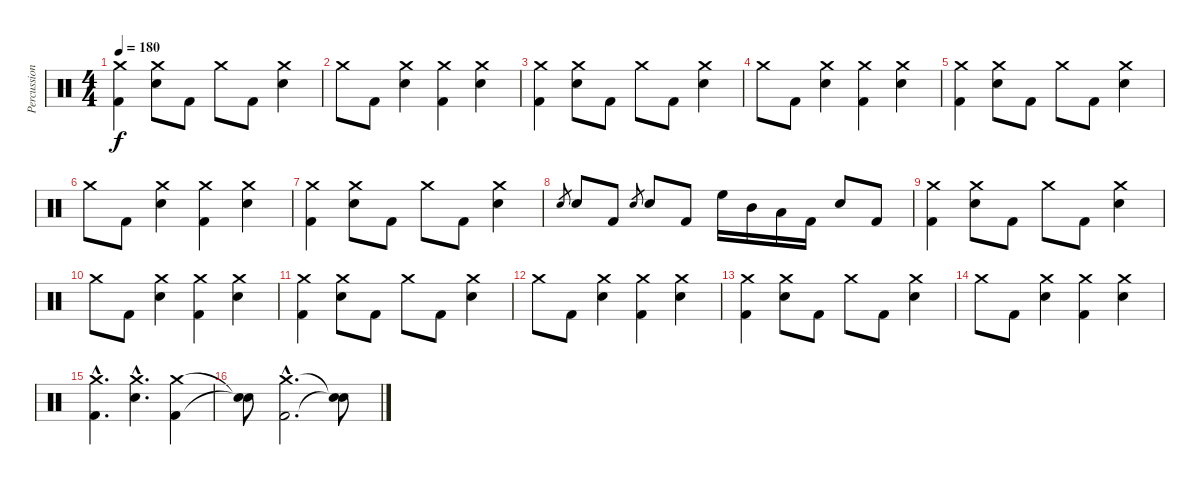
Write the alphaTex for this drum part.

\track ("Percussion" "Percussion") {instrument percussion}
\staff {score}
\articulation defaults
\ts (4 4)
\tempo 180
\clef neutral
\ks c
("Kick (hit) 2" "Crash medium (hit)").4{dy f} ("Electric Snare (hit)" "Crash medium (hit)").8 "Kick (hit) 2".8 "Crash medium (hit)".8 "Kick (hit) 2".8 ("Electric Snare (hit)" "Crash medium (hit)").4 |
"Crash medium (hit)".8 "Kick (hit) 2".8 ("Electric Snare (hit)" "Crash medium (hit)").4 ("Kick (hit) 2" "Crash medium (hit)").4 ("Electric Snare (hit)" "Crash medium (hit)").4 |
("Kick (hit) 2" "Crash medium (hit)").4 ("Electric Snare (hit)" "Crash medium (hit)").8 "Kick (hit) 2".8 "Crash medium (hit)".8 "Kick (hit) 2".8 ("Electric Snare (hit)" "Crash medium (hit)").4 |
"Crash medium (hit)".8 "Kick (hit) 2".8 ("Electric Snare (hit)" "Crash medium (hit)").4 ("Kick (hit) 2" "Crash medium (hit)").4 ("Electric Snare (hit)" "Crash medium (hit)").4 |
("Kick (hit) 2" "Crash medium (hit)").4 ("Electric Snare (hit)" "Crash medium (hit)").8 "Kick (hit) 2".8 "Crash medium (hit)".8 "Kick (hit) 2".8 ("Electric Snare (hit)" "Crash medium (hit)").4 |
"Crash medium (hit)".8 "Kick (hit) 2".8 ("Electric Snare (hit)" "Crash medium (hit)").4 ("Kick (hit) 2" "Crash medium (hit)").4 ("Electric Snare (hit)" "Crash medium (hit)").4 |
("Kick (hit) 2" "Crash medium (hit)").4 ("Electric Snare (hit)" "Crash medium (hit)").8 "Kick (hit) 2".8 "Crash medium (hit)".8 "Kick (hit) 2".8 ("Electric Snare (hit)" "Crash medium (hit)").4 |
"Electric Snare (hit)".8{gr} "Electric Snare (hit)".8 "Kick (hit) 2".8 "Electric Snare (hit)".8{gr} "Electric Snare (hit)".8 "Kick (hit) 2".8 "High Floor Tom (hit)".16 "Mid Tom (hit)".16 "Low Tom (hit)".16 "Kick (hit) 2".16 "Electric Snare (hit)".8 "Kick (hit) 2".8 |
("Kick (hit) 2" "Crash medium (hit)").4 ("Electric Snare (hit)" "Crash medium (hit)").8 "Kick (hit) 2".8 "Crash medium (hit)".8 "Kick (hit) 2".8 ("Electric Snare (hit)" "Crash medium (hit)").4 |
"Crash medium (hit)".8 "Kick (hit) 2".8 ("Electric Snare (hit)" "Crash medium (hit)").4 ("Kick (hit) 2" "Crash medium (hit)").4 ("Electric Snare (hit)" "Crash medium (hit)").4 |
("Kick (hit) 2" "Crash medium (hit)").4 ("Electric Snare (hit)" "Crash medium (hit)").8 "Kick (hit) 2".8 "Crash medium (hit)".8 "Kick (hit) 2".8 ("Electric Snare (hit)" "Crash medium (hit)").4 |
"Crash medium (hit)".8 "Kick (hit) 2".8 ("Electric Snare (hit)" "Crash medium (hit)").4 ("Kick (hit) 2" "Crash medium (hit)").4 ("Electric Snare (hit)" "Crash medium (hit)").4 |
("Kick (hit) 2" "Crash medium (hit)").4 ("Electric Snare (hit)" "Crash medium (hit)").8 "Kick (hit) 2".8 "Crash medium (hit)".8 "Kick (hit) 2".8 ("Electric Snare (hit)" "Crash medium (hit)").4 |
"Crash medium (hit)".8 "Kick (hit) 2".8 ("Electric Snare (hit)" "Crash medium (hit)").4 ("Kick (hit) 2" "Crash medium (hit)").4 ("Electric Snare (hit)" "Crash medium (hit)").4 |
("Kick (hit) 2"{hac} "Crash medium (hit)"{hac}).4{d} ("Electric Snare (hit)"{hac} "Crash medium (hit)"{hac}).4{d} ("Kick (hit) 2" "Crash medium (hit)").4 |
("Snare (hit)"{t} "Snare (hit)"{t}).8 ("Kick (hit) 2"{hac} "Crash medium (hit)"{hac}).2{d} ("Snare (hit)"{t} "Snare (hit)"{t}).8
